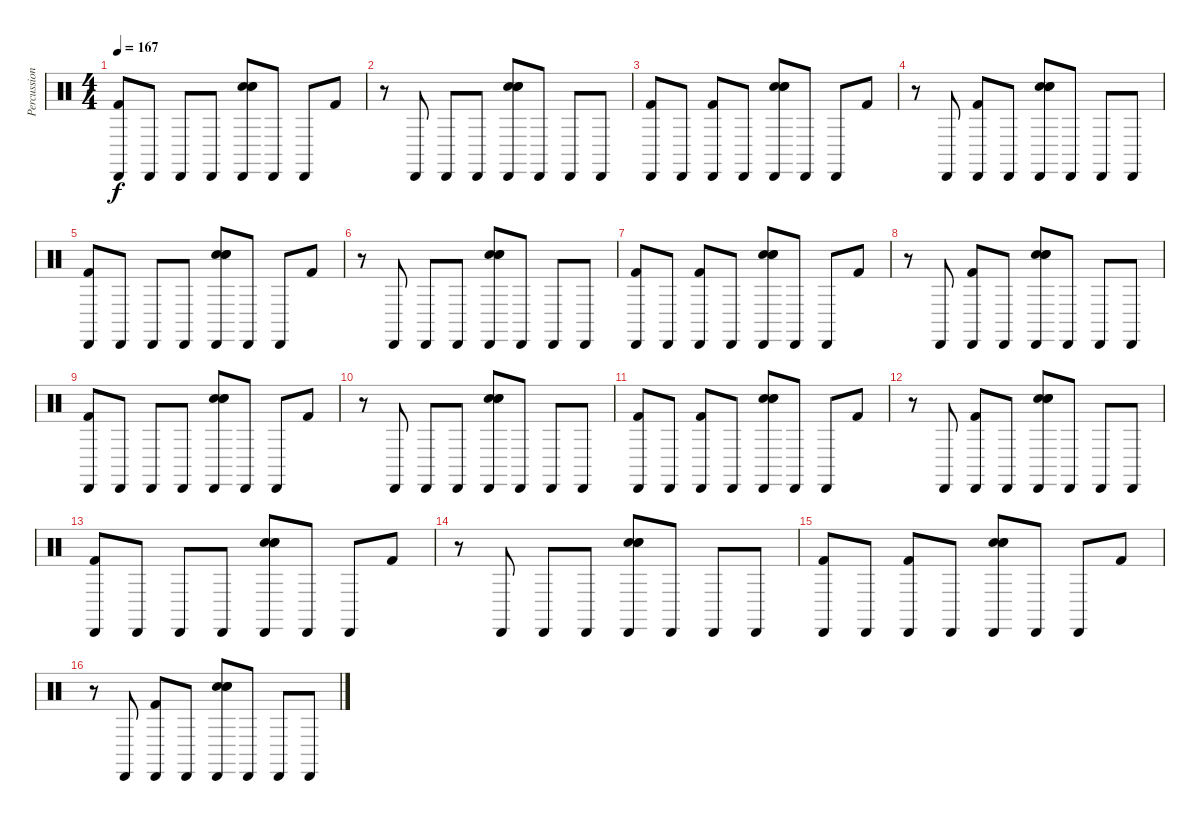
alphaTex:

\track ("Percussion" "Percussion") {instrument percussion}
\staff {score}
\articulation defaults
\ts (4 4)
\tempo 167
\clef neutral
\ks c
("Cabasa (hit)" "Kick (hit) 2").8{dy f} "Cabasa (hit)".8 "Cabasa (hit)".8 "Cabasa (hit)".8 ("Hand Clap (hit)" "Cabasa (hit)" "Electric Snare (hit)" "Snare (hit) 2").8 "Cabasa (hit)".8 "Cabasa (hit)".8 "Kick (hit) 2".8 |
r.8 "Cabasa (hit)".8 "Cabasa (hit)".8 "Cabasa (hit)".8 ("Hand Clap (hit)" "Cabasa (hit)" "Electric Snare (hit)" "Snare (hit) 2").8 "Cabasa (hit)".8 "Cabasa (hit)".8 "Cabasa (hit)".8 |
("Cabasa (hit)" "Kick (hit) 2").8 "Cabasa (hit)".8 ("Cabasa (hit)" "Kick (hit) 2").8 "Cabasa (hit)".8 ("Hand Clap (hit)" "Cabasa (hit)" "Electric Snare (hit)" "Snare (hit) 2").8 "Cabasa (hit)".8 "Cabasa (hit)".8 "Kick (hit) 2".8 |
r.8 "Cabasa (hit)".8 ("Cabasa (hit)" "Kick (hit) 2").8 "Cabasa (hit)".8 ("Hand Clap (hit)" "Cabasa (hit)" "Electric Snare (hit)" "Snare (hit) 2").8 "Cabasa (hit)".8 "Cabasa (hit)".8 "Cabasa (hit)".8 |
("Cabasa (hit)" "Kick (hit) 2").8 "Cabasa (hit)".8 "Cabasa (hit)".8 "Cabasa (hit)".8 ("Hand Clap (hit)" "Cabasa (hit)" "Electric Snare (hit)" "Snare (hit) 2").8 "Cabasa (hit)".8 "Cabasa (hit)".8 "Kick (hit) 2".8 |
r.8 "Cabasa (hit)".8 "Cabasa (hit)".8 "Cabasa (hit)".8 ("Hand Clap (hit)" "Cabasa (hit)" "Electric Snare (hit)" "Snare (hit) 2").8 "Cabasa (hit)".8 "Cabasa (hit)".8 "Cabasa (hit)".8 |
("Cabasa (hit)" "Kick (hit) 2").8 "Cabasa (hit)".8 ("Cabasa (hit)" "Kick (hit) 2").8 "Cabasa (hit)".8 ("Hand Clap (hit)" "Cabasa (hit)" "Electric Snare (hit)" "Snare (hit) 2").8 "Cabasa (hit)".8 "Cabasa (hit)".8 "Kick (hit) 2".8 |
r.8 "Cabasa (hit)".8 ("Cabasa (hit)" "Kick (hit) 2").8 "Cabasa (hit)".8 ("Hand Clap (hit)" "Cabasa (hit)" "Electric Snare (hit)" "Snare (hit) 2").8 "Cabasa (hit)".8 "Cabasa (hit)".8 "Cabasa (hit)".8 |
("Cabasa (hit)" "Kick (hit) 2").8 "Cabasa (hit)".8 "Cabasa (hit)".8 "Cabasa (hit)".8 ("Hand Clap (hit)" "Cabasa (hit)" "Electric Snare (hit)" "Snare (hit) 2").8 "Cabasa (hit)".8 "Cabasa (hit)".8 "Kick (hit) 2".8 |
r.8 "Cabasa (hit)".8 "Cabasa (hit)".8 "Cabasa (hit)".8 ("Hand Clap (hit)" "Cabasa (hit)" "Electric Snare (hit)" "Snare (hit) 2").8 "Cabasa (hit)".8 "Cabasa (hit)".8 "Cabasa (hit)".8 |
("Cabasa (hit)" "Kick (hit) 2").8 "Cabasa (hit)".8 ("Cabasa (hit)" "Kick (hit) 2").8 "Cabasa (hit)".8 ("Hand Clap (hit)" "Cabasa (hit)" "Electric Snare (hit)" "Snare (hit) 2").8 "Cabasa (hit)".8 "Cabasa (hit)".8 "Kick (hit) 2".8 |
r.8 "Cabasa (hit)".8 ("Cabasa (hit)" "Kick (hit) 2").8 "Cabasa (hit)".8 ("Hand Clap (hit)" "Cabasa (hit)" "Electric Snare (hit)" "Snare (hit) 2").8 "Cabasa (hit)".8 "Cabasa (hit)".8 "Cabasa (hit)".8 |
("Cabasa (hit)" "Kick (hit) 2").8 "Cabasa (hit)".8 "Cabasa (hit)".8 "Cabasa (hit)".8 ("Hand Clap (hit)" "Cabasa (hit)" "Electric Snare (hit)" "Snare (hit) 2").8 "Cabasa (hit)".8 "Cabasa (hit)".8 "Kick (hit) 2".8 |
r.8 "Cabasa (hit)".8 "Cabasa (hit)".8 "Cabasa (hit)".8 ("Hand Clap (hit)" "Cabasa (hit)" "Electric Snare (hit)" "Snare (hit) 2").8 "Cabasa (hit)".8 "Cabasa (hit)".8 "Cabasa (hit)".8 |
("Cabasa (hit)" "Kick (hit) 2").8 "Cabasa (hit)".8 ("Cabasa (hit)" "Kick (hit) 2").8 "Cabasa (hit)".8 ("Hand Clap (hit)" "Cabasa (hit)" "Electric Snare (hit)" "Snare (hit) 2").8 "Cabasa (hit)".8 "Cabasa (hit)".8 "Kick (hit) 2".8 |
r.8 "Cabasa (hit)".8 ("Cabasa (hit)" "Kick (hit) 2").8 "Cabasa (hit)".8 ("Hand Clap (hit)" "Cabasa (hit)" "Electric Snare (hit)" "Snare (hit) 2").8 "Cabasa (hit)".8 "Cabasa (hit)".8 "Cabasa (hit)".8
